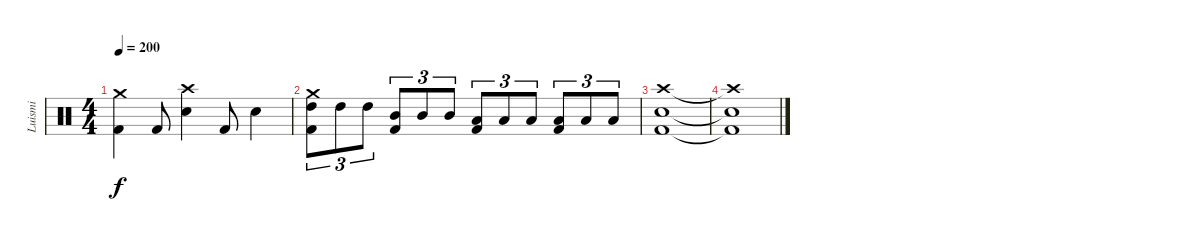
\track ("Luismi" "Luismi") {instrument percussion}
\staff {score}
\articulation defaults
\ts (4 4)
\tempo 200
\clef neutral
\ks c
("Crash medium (hit)" "Kick (hit) 2").4{dy f} "Kick (hit) 2".8 ("Crash high (hit)" "Snare (hit) 2").4 "Kick (hit) 2".8 "Snare (hit) 2".4 |
("Crash medium (hit)" "High Tom (hit)" "Kick (hit) 2").8{tu (3 2)} "High Tom (hit)".8{tu (3 2)} "High Tom (hit)".8{tu (3 2)} ("Mid Tom (hit)" "Kick (hit) 2").8{tu (3 2)} "Mid Tom (hit)".8{tu (3 2)} "Mid Tom (hit)".8{tu (3 2)} ("Low Tom (hit)" "Kick (hit) 2").8{tu (3 2)} "Low Tom (hit)".8{tu (3 2)} "Low Tom (hit)".8{tu (3 2)} ("Low Floor Tom (hit)" "Kick (hit) 2").8{tu (3 2)} "Low Floor Tom (hit)".8{tu (3 2)} "Low Floor Tom (hit)".8{tu (3 2)} |
("Crash high (hit)" "Snare (hit) 2" "Kick (hit) 2").1 |
("Crash high (hit)"{t} "Snare (hit) 2"{t} "Kick (hit) 2"{t}).1
